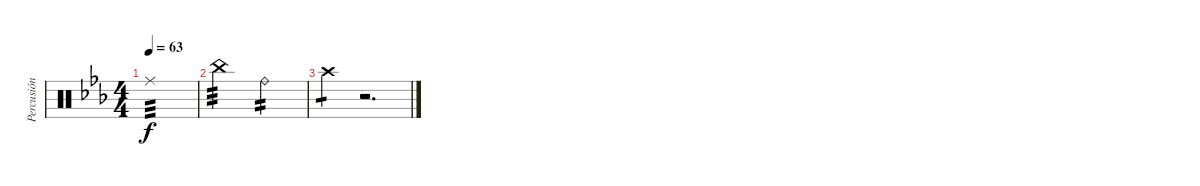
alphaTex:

\track ("Percusión" "Percusión") {instrument percussion}
\staff {score}
\articulation defaults
\ts (4 4)
\tempo 63
\clef neutral
\ks eb "Ride (middle)".1{tp 3 dy f}
|
"China (hit)".2{tp 3} "Ride (bell)".2{tp 2} |
"Crash high (hit)".4{tp 1} r.2{d}
